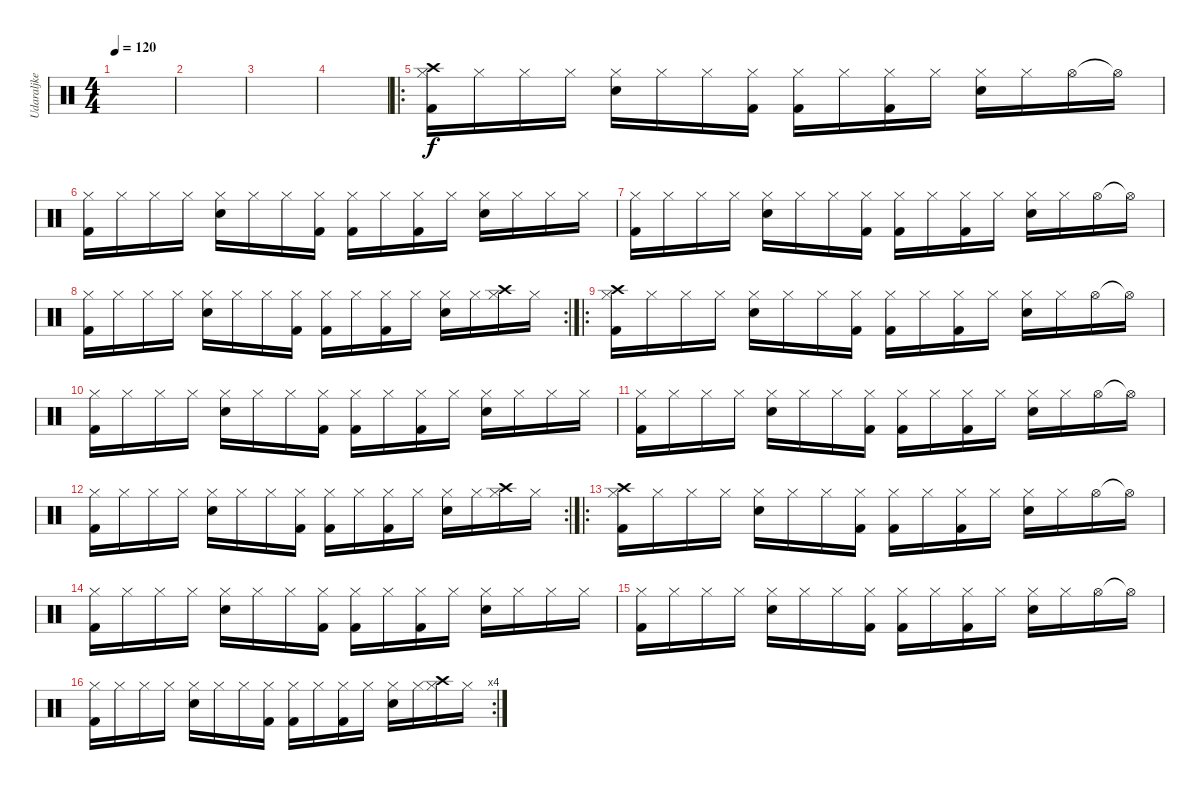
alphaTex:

\track ("Udaraljke" "Udaraljke") {instrument percussion}
\staff {score}
\articulation defaults
\ts (4 4)
\tempo 120
\clef neutral
\ks c
|
|
|
|
\ro
("Crash high (hit)" "Hi-Hat (closed)" "Kick (hit) 2").16 "Hi-Hat (closed)".16 "Hi-Hat (closed)".16 "Hi-Hat (closed)".16 ("Hi-Hat (closed)" "Snare (hit) 2").16 "Hi-Hat (closed)".16 "Hi-Hat (closed)".16 ("Hi-Hat (closed)" "Kick (hit) 2").16 ("Hi-Hat (closed)" "Kick (hit) 2").16 "Hi-Hat (closed)".16 ("Hi-Hat (closed)" "Kick (hit) 2").16 "Hi-Hat (closed)".16 ("Hi-Hat (closed)" "Snare (hit) 2").16 "Hi-Hat (closed)".16 "Hi-Hat (open)".16 "Hi-Hat (open)"{t}.16 |
("Hi-Hat (closed)" "Kick (hit) 2").16 "Hi-Hat (closed)".16 "Hi-Hat (closed)".16 "Hi-Hat (closed)".16 ("Hi-Hat (closed)" "Snare (hit) 2").16 "Hi-Hat (closed)".16 "Hi-Hat (closed)".16 ("Hi-Hat (closed)" "Kick (hit) 2").16 ("Hi-Hat (closed)" "Kick (hit) 2").16 "Hi-Hat (closed)".16 ("Hi-Hat (closed)" "Kick (hit) 2").16 "Hi-Hat (closed)".16 ("Hi-Hat (closed)" "Snare (hit) 2").16 "Hi-Hat (closed)".16 "Hi-Hat (closed)".16 "Hi-Hat (closed)".16 |
("Hi-Hat (closed)" "Kick (hit) 2").16 "Hi-Hat (closed)".16 "Hi-Hat (closed)".16 "Hi-Hat (closed)".16 ("Hi-Hat (closed)" "Snare (hit) 2").16 "Hi-Hat (closed)".16 "Hi-Hat (closed)".16 ("Hi-Hat (closed)" "Kick (hit) 2").16 ("Hi-Hat (closed)" "Kick (hit) 2").16 "Hi-Hat (closed)".16 ("Hi-Hat (closed)" "Kick (hit) 2").16 "Hi-Hat (closed)".16 ("Hi-Hat (closed)" "Snare (hit) 2").16 "Hi-Hat (closed)".16 "Hi-Hat (open)".16 "Hi-Hat (open)"{t}.16 |
\rc 2
("Hi-Hat (closed)" "Kick (hit) 2").16 "Hi-Hat (closed)".16 "Hi-Hat (closed)".16 "Hi-Hat (closed)".16 ("Hi-Hat (closed)" "Snare (hit) 2").16 "Hi-Hat (closed)".16 "Hi-Hat (closed)".16 ("Hi-Hat (closed)" "Kick (hit) 2").16 ("Hi-Hat (closed)" "Kick (hit) 2").16 "Hi-Hat (closed)".16 ("Hi-Hat (closed)" "Kick (hit) 2").16 "Hi-Hat (closed)".16 ("Hi-Hat (closed)" "Snare (hit) 2").16 "Hi-Hat (closed)".16 ("Crash high (hit)" "Hi-Hat (closed)").16 "Hi-Hat (closed)".16 |
\ro
("Crash high (hit)" "Hi-Hat (closed)" "Kick (hit) 2").16 "Hi-Hat (closed)".16 "Hi-Hat (closed)".16 "Hi-Hat (closed)".16 ("Hi-Hat (closed)" "Snare (hit) 2").16 "Hi-Hat (closed)".16 "Hi-Hat (closed)".16 ("Hi-Hat (closed)" "Kick (hit) 2").16 ("Hi-Hat (closed)" "Kick (hit) 2").16 "Hi-Hat (closed)".16 ("Hi-Hat (closed)" "Kick (hit) 2").16 "Hi-Hat (closed)".16 ("Hi-Hat (closed)" "Snare (hit) 2").16 "Hi-Hat (closed)".16 "Hi-Hat (open)".16 "Hi-Hat (open)"{t}.16 |
("Hi-Hat (closed)" "Kick (hit) 2").16 "Hi-Hat (closed)".16 "Hi-Hat (closed)".16 "Hi-Hat (closed)".16 ("Hi-Hat (closed)" "Snare (hit) 2").16 "Hi-Hat (closed)".16 "Hi-Hat (closed)".16 ("Hi-Hat (closed)" "Kick (hit) 2").16 ("Hi-Hat (closed)" "Kick (hit) 2").16 "Hi-Hat (closed)".16 ("Hi-Hat (closed)" "Kick (hit) 2").16 "Hi-Hat (closed)".16 ("Hi-Hat (closed)" "Snare (hit) 2").16 "Hi-Hat (closed)".16 "Hi-Hat (closed)".16 "Hi-Hat (closed)".16 |
("Hi-Hat (closed)" "Kick (hit) 2").16 "Hi-Hat (closed)".16 "Hi-Hat (closed)".16 "Hi-Hat (closed)".16 ("Hi-Hat (closed)" "Snare (hit) 2").16 "Hi-Hat (closed)".16 "Hi-Hat (closed)".16 ("Hi-Hat (closed)" "Kick (hit) 2").16 ("Hi-Hat (closed)" "Kick (hit) 2").16 "Hi-Hat (closed)".16 ("Hi-Hat (closed)" "Kick (hit) 2").16 "Hi-Hat (closed)".16 ("Hi-Hat (closed)" "Snare (hit) 2").16 "Hi-Hat (closed)".16 "Hi-Hat (open)".16 "Hi-Hat (open)"{t}.16 |
\rc 2
("Hi-Hat (closed)" "Kick (hit) 2").16 "Hi-Hat (closed)".16 "Hi-Hat (closed)".16 "Hi-Hat (closed)".16 ("Hi-Hat (closed)" "Snare (hit) 2").16 "Hi-Hat (closed)".16 "Hi-Hat (closed)".16 ("Hi-Hat (closed)" "Kick (hit) 2").16 ("Hi-Hat (closed)" "Kick (hit) 2").16 "Hi-Hat (closed)".16 ("Hi-Hat (closed)" "Kick (hit) 2").16 "Hi-Hat (closed)".16 ("Hi-Hat (closed)" "Snare (hit) 2").16 "Hi-Hat (closed)".16 ("Crash high (hit)" "Hi-Hat (closed)").16 "Hi-Hat (closed)".16 |
\ro
("Crash high (hit)" "Hi-Hat (closed)" "Kick (hit) 2").16 "Hi-Hat (closed)".16 "Hi-Hat (closed)".16 "Hi-Hat (closed)".16 ("Hi-Hat (closed)" "Snare (hit) 2").16 "Hi-Hat (closed)".16 "Hi-Hat (closed)".16 ("Hi-Hat (closed)" "Kick (hit) 2").16 ("Hi-Hat (closed)" "Kick (hit) 2").16 "Hi-Hat (closed)".16 ("Hi-Hat (closed)" "Kick (hit) 2").16 "Hi-Hat (closed)".16 ("Hi-Hat (closed)" "Snare (hit) 2").16 "Hi-Hat (closed)".16 "Hi-Hat (open)".16 "Hi-Hat (open)"{t}.16 |
("Hi-Hat (closed)" "Kick (hit) 2").16 "Hi-Hat (closed)".16 "Hi-Hat (closed)".16 "Hi-Hat (closed)".16 ("Hi-Hat (closed)" "Snare (hit) 2").16 "Hi-Hat (closed)".16 "Hi-Hat (closed)".16 ("Hi-Hat (closed)" "Kick (hit) 2").16 ("Hi-Hat (closed)" "Kick (hit) 2").16 "Hi-Hat (closed)".16 ("Hi-Hat (closed)" "Kick (hit) 2").16 "Hi-Hat (closed)".16 ("Hi-Hat (closed)" "Snare (hit) 2").16 "Hi-Hat (closed)".16 "Hi-Hat (closed)".16 "Hi-Hat (closed)".16 |
("Hi-Hat (closed)" "Kick (hit) 2").16 "Hi-Hat (closed)".16 "Hi-Hat (closed)".16 "Hi-Hat (closed)".16 ("Hi-Hat (closed)" "Snare (hit) 2").16 "Hi-Hat (closed)".16 "Hi-Hat (closed)".16 ("Hi-Hat (closed)" "Kick (hit) 2").16 ("Hi-Hat (closed)" "Kick (hit) 2").16 "Hi-Hat (closed)".16 ("Hi-Hat (closed)" "Kick (hit) 2").16 "Hi-Hat (closed)".16 ("Hi-Hat (closed)" "Snare (hit) 2").16 "Hi-Hat (closed)".16 "Hi-Hat (open)".16 "Hi-Hat (open)"{t}.16 |
\rc 4
("Hi-Hat (closed)" "Kick (hit) 2").16 "Hi-Hat (closed)".16 "Hi-Hat (closed)".16 "Hi-Hat (closed)".16 ("Hi-Hat (closed)" "Snare (hit) 2").16 "Hi-Hat (closed)".16 "Hi-Hat (closed)".16 ("Hi-Hat (closed)" "Kick (hit) 2").16 ("Hi-Hat (closed)" "Kick (hit) 2").16 "Hi-Hat (closed)".16 ("Hi-Hat (closed)" "Kick (hit) 2").16 "Hi-Hat (closed)".16 ("Hi-Hat (closed)" "Snare (hit) 2").16 "Hi-Hat (closed)".16 ("Crash high (hit)" "Hi-Hat (closed)").16 "Hi-Hat (closed)".16
